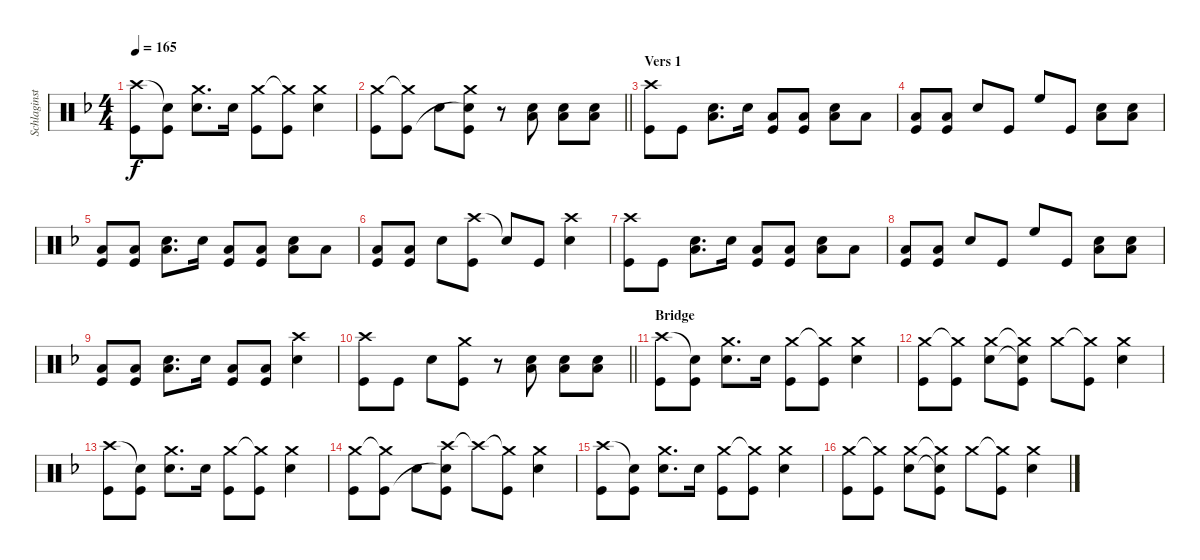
\track ("Schlaginstrumente - Auswahl" "Schlaginst") {instrument percussion}
\staff {score}
\articulation defaults
\ts (4 4)
\tempo 165
\clef neutral
\ks f
("Crash high (hit)" "Kick (hit)").8{dy f} ("Snare (hit)"{t} "Kick (hit)").8 ("Crash medium (hit)" "Snare (hit) 2").8{d} "Snare (hit) 2".16 ("Crash medium (hit)" "Kick (hit)").8 ("Crash medium (hit)"{t} "Kick (hit)").8 ("Crash medium (hit)" "Snare (hit) 2").4 |
\barLineRight lightlight
("Crash medium (hit)" "Kick (hit)").8 ("Crash medium (hit)"{t} "Kick (hit)").8 "Snare (hit) 2".8 ("Crash medium (hit)" "Snare (hit) 2"{t} "Kick (hit)").8 r.8 ("Low Tom (hit)" "Snare (hit) 2").8 ("Low Tom (hit)" "Snare (hit) 2").8 ("Low Tom (hit)" "Snare (hit) 2").8 |
\section ("" "Vers 1")
("Crash high (hit)" "Kick (hit)").8 "Kick (hit)".8 ("Low Tom (hit)" "Snare (hit) 2").8{d} "Snare (hit) 2".16 ("Low Tom (hit)" "Kick (hit)").8 ("Low Tom (hit)" "Kick (hit)").8 ("Low Tom (hit)" "Snare (hit) 2").8 "Low Tom (hit)".8 |
("Low Tom (hit)" "Kick (hit)").8 ("Low Tom (hit)" "Kick (hit)").8 "Snare (hit) 2".8 "Kick (hit)".8 "High Floor Tom (hit)".8 "Kick (hit)".8 ("Low Tom (hit)" "Snare (hit) 2").8 ("Low Tom (hit)" "Snare (hit) 2").8 |
("Low Tom (hit)" "Kick (hit)").8 ("Low Tom (hit)" "Kick (hit)").8 ("Low Tom (hit)" "Snare (hit) 2").8{d} "Snare (hit) 2".16 ("Low Tom (hit)" "Kick (hit)").8 ("Low Tom (hit)" "Kick (hit)").8 ("Low Tom (hit)" "Snare (hit) 2").8 "Low Tom (hit)".8 |
("Low Tom (hit)" "Kick (hit)").8 ("Low Tom (hit)" "Kick (hit)").8 "Snare (hit) 2".8 ("Crash high (hit)" "Kick (hit)").8 "Snare (hit)"{t}.8 "Kick (hit)".8 ("Crash high (hit)" "Snare (hit) 2").4 |
("Crash high (hit)" "Kick (hit)").8 "Kick (hit)".8 ("Low Tom (hit)" "Snare (hit) 2").8{d} "Snare (hit) 2".16 ("Low Tom (hit)" "Kick (hit)").8 ("Low Tom (hit)" "Kick (hit)").8 ("Low Tom (hit)" "Snare (hit) 2").8 "Low Tom (hit)".8 |
("Low Tom (hit)" "Kick (hit)").8 ("Low Tom (hit)" "Kick (hit)").8 "Snare (hit) 2".8 "Kick (hit)".8 "High Floor Tom (hit)".8 "Kick (hit)".8 ("Low Tom (hit)" "Snare (hit) 2").8 ("Low Tom (hit)" "Snare (hit) 2").8 |
("Low Tom (hit)" "Kick (hit)").8 ("Low Tom (hit)" "Kick (hit)").8 ("Low Tom (hit)" "Snare (hit) 2").8{d} "Snare (hit) 2".16 ("Low Tom (hit)" "Kick (hit)").8 ("Low Tom (hit)" "Kick (hit)").8 ("Crash high (hit)" "Snare (hit) 2").4 |
\barLineRight lightlight
("Crash high (hit)" "Kick (hit)").8 "Kick (hit)".8 "Snare (hit) 2".8 ("Crash medium (hit)" "Kick (hit)").8 r.8 ("Low Tom (hit)" "Snare (hit) 2").8 ("Low Tom (hit)" "Snare (hit) 2").8 ("Low Tom (hit)" "Snare (hit) 2").8 |
\section ("" "Bridge")
("Crash high (hit)" "Kick (hit)").8 ("Snare (hit)"{t} "Kick (hit)").8 ("Crash medium (hit)" "Snare (hit) 2").8{d} "Snare (hit) 2".16 ("Crash medium (hit)" "Kick (hit)").8 ("Crash medium (hit)"{t} "Kick (hit)").8 ("Crash medium (hit)" "Snare (hit) 2").4 |
("Crash medium (hit)" "Kick (hit)").8 ("Crash medium (hit)"{t} "Kick (hit)").8 ("Crash medium (hit)" "Snare (hit) 2").8 ("Crash medium (hit)"{t} "Snare (hit) 2"{t} "Kick (hit)").8 "Crash medium (hit)".8 ("Crash medium (hit)"{t} "Kick (hit)").8 ("Crash medium (hit)" "Snare (hit) 2").4 |
("Crash high (hit)" "Kick (hit)").8 ("Snare (hit)"{t} "Kick (hit)").8 ("Crash medium (hit)" "Snare (hit) 2").8{d} "Snare (hit) 2".16 ("Crash medium (hit)" "Kick (hit)").8 ("Crash medium (hit)"{t} "Kick (hit)").8 ("Crash medium (hit)" "Snare (hit) 2").4 |
("Crash medium (hit)" "Kick (hit)").8 ("Crash medium (hit)"{t} "Kick (hit)").8 "Snare (hit) 2".8 ("Crash high (hit)" "Snare (hit) 2"{t} "Kick (hit)").8 "Crash high (hit)"{t}.8 ("Crash medium (hit)"{t} "Kick (hit)").8 ("Crash medium (hit)" "Snare (hit) 2").4 |
("Crash high (hit)" "Kick (hit)").8 ("Snare (hit)"{t} "Kick (hit)").8 ("Crash medium (hit)" "Snare (hit) 2").8{d} "Snare (hit) 2".16 ("Crash medium (hit)" "Kick (hit)").8 ("Crash medium (hit)"{t} "Kick (hit)").8 ("Crash medium (hit)" "Snare (hit) 2").4 |
("Crash medium (hit)" "Kick (hit)").8 ("Crash medium (hit)"{t} "Kick (hit)").8 ("Crash medium (hit)" "Snare (hit) 2").8 ("Crash medium (hit)"{t} "Snare (hit) 2"{t} "Kick (hit)").8 "Crash medium (hit)".8 ("Crash medium (hit)"{t} "Kick (hit)").8 ("Crash medium (hit)" "Snare (hit) 2").4
